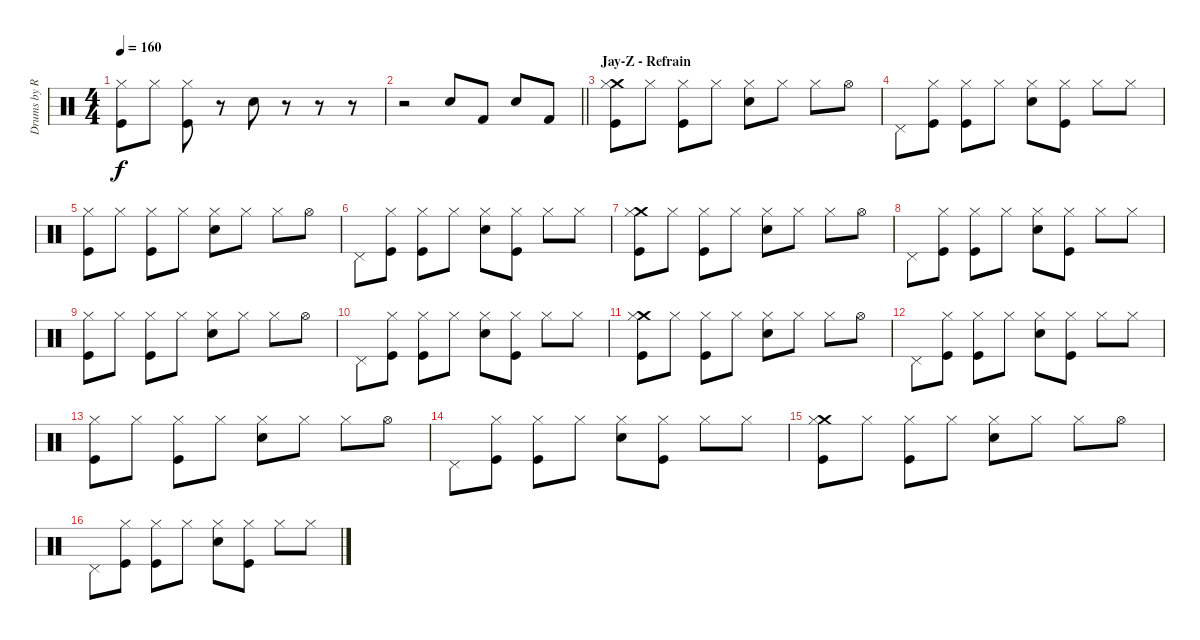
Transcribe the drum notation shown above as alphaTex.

\track ("Drums by Rob Bourdon" "Drums by R") {instrument percussion}
\staff {score}
\articulation defaults
\ts (4 4)
\tempo 160
\clef neutral
\ks c
("Hi-Hat (closed)" "Kick (hit)").8{dy f} "Hi-Hat (closed)".8 ("Hi-Hat (closed)" "Kick (hit)").8 r.8 "Snare (hit) 2".8 r.8 r.8 r.8 |
\barLineRight lightlight
r.2 "Snare (hit) 2".8 "Kick (hit) 2".8 "Snare (hit) 2".8 "Kick (hit) 2".8 |
\section ("" "Jay-Z - Refrain")
("Crash medium (hit)" "Hi-Hat (closed)" "Kick (hit)").8 "Hi-Hat (closed)".8 ("Hi-Hat (closed)" "Kick (hit)").8 "Hi-Hat (closed)".8 ("Hi-Hat (closed)" "Snare (hit) 2").8 "Hi-Hat (closed)".8 "Hi-Hat (closed)".8 "Hi-Hat (open)".8 |
"Pedal Hi-Hat (hit)".8 ("Hi-Hat (closed)" "Kick (hit)").8 ("Hi-Hat (closed)" "Kick (hit)").8 "Hi-Hat (closed)".8 ("Hi-Hat (closed)" "Snare (hit) 2").8 ("Hi-Hat (closed)" "Kick (hit)").8 "Hi-Hat (closed)".8 "Hi-Hat (closed)".8 |
("Hi-Hat (closed)" "Kick (hit)").8 "Hi-Hat (closed)".8 ("Hi-Hat (closed)" "Kick (hit)").8 "Hi-Hat (closed)".8 ("Hi-Hat (closed)" "Snare (hit) 2").8 "Hi-Hat (closed)".8 "Hi-Hat (closed)".8 "Hi-Hat (open)".8 |
"Pedal Hi-Hat (hit)".8 ("Hi-Hat (closed)" "Kick (hit)").8 ("Hi-Hat (closed)" "Kick (hit)").8 "Hi-Hat (closed)".8 ("Hi-Hat (closed)" "Snare (hit) 2").8 ("Hi-Hat (closed)" "Kick (hit)").8 "Hi-Hat (closed)".8 "Hi-Hat (closed)".8 |
("Crash medium (hit)" "Hi-Hat (closed)" "Kick (hit)").8 "Hi-Hat (closed)".8 ("Hi-Hat (closed)" "Kick (hit)").8 "Hi-Hat (closed)".8 ("Hi-Hat (closed)" "Snare (hit) 2").8 "Hi-Hat (closed)".8 "Hi-Hat (closed)".8 "Hi-Hat (open)".8 |
"Pedal Hi-Hat (hit)".8 ("Hi-Hat (closed)" "Kick (hit)").8 ("Hi-Hat (closed)" "Kick (hit)").8 "Hi-Hat (closed)".8 ("Hi-Hat (closed)" "Snare (hit) 2").8 ("Hi-Hat (closed)" "Kick (hit)").8 "Hi-Hat (closed)".8 "Hi-Hat (closed)".8 |
("Hi-Hat (closed)" "Kick (hit)").8 "Hi-Hat (closed)".8 ("Hi-Hat (closed)" "Kick (hit)").8 "Hi-Hat (closed)".8 ("Hi-Hat (closed)" "Snare (hit) 2").8 "Hi-Hat (closed)".8 "Hi-Hat (closed)".8 "Hi-Hat (open)".8 |
"Pedal Hi-Hat (hit)".8 ("Hi-Hat (closed)" "Kick (hit)").8 ("Hi-Hat (closed)" "Kick (hit)").8 "Hi-Hat (closed)".8 ("Hi-Hat (closed)" "Snare (hit) 2").8 ("Hi-Hat (closed)" "Kick (hit)").8 "Hi-Hat (closed)".8 "Hi-Hat (closed)".8 |
("Crash medium (hit)" "Hi-Hat (closed)" "Kick (hit)").8 "Hi-Hat (closed)".8 ("Hi-Hat (closed)" "Kick (hit)").8 "Hi-Hat (closed)".8 ("Hi-Hat (closed)" "Snare (hit) 2").8 "Hi-Hat (closed)".8 "Hi-Hat (closed)".8 "Hi-Hat (open)".8 |
"Pedal Hi-Hat (hit)".8 ("Hi-Hat (closed)" "Kick (hit)").8 ("Hi-Hat (closed)" "Kick (hit)").8 "Hi-Hat (closed)".8 ("Hi-Hat (closed)" "Snare (hit) 2").8 ("Hi-Hat (closed)" "Kick (hit)").8 "Hi-Hat (closed)".8 "Hi-Hat (closed)".8 |
("Hi-Hat (closed)" "Kick (hit)").8 "Hi-Hat (closed)".8 ("Hi-Hat (closed)" "Kick (hit)").8 "Hi-Hat (closed)".8 ("Hi-Hat (closed)" "Snare (hit) 2").8 "Hi-Hat (closed)".8 "Hi-Hat (closed)".8 "Hi-Hat (open)".8 |
"Pedal Hi-Hat (hit)".8 ("Hi-Hat (closed)" "Kick (hit)").8 ("Hi-Hat (closed)" "Kick (hit)").8 "Hi-Hat (closed)".8 ("Hi-Hat (closed)" "Snare (hit) 2").8 ("Hi-Hat (closed)" "Kick (hit)").8 "Hi-Hat (closed)".8 "Hi-Hat (closed)".8 |
("Crash medium (hit)" "Hi-Hat (closed)" "Kick (hit)").8 "Hi-Hat (closed)".8 ("Hi-Hat (closed)" "Kick (hit)").8 "Hi-Hat (closed)".8 ("Hi-Hat (closed)" "Snare (hit) 2").8 "Hi-Hat (closed)".8 "Hi-Hat (closed)".8 "Hi-Hat (open)".8 |
"Pedal Hi-Hat (hit)".8 ("Hi-Hat (closed)" "Kick (hit)").8 ("Hi-Hat (closed)" "Kick (hit)").8 "Hi-Hat (closed)".8 ("Hi-Hat (closed)" "Snare (hit) 2").8 ("Hi-Hat (closed)" "Kick (hit)").8 "Hi-Hat (closed)".8 "Hi-Hat (closed)".8
